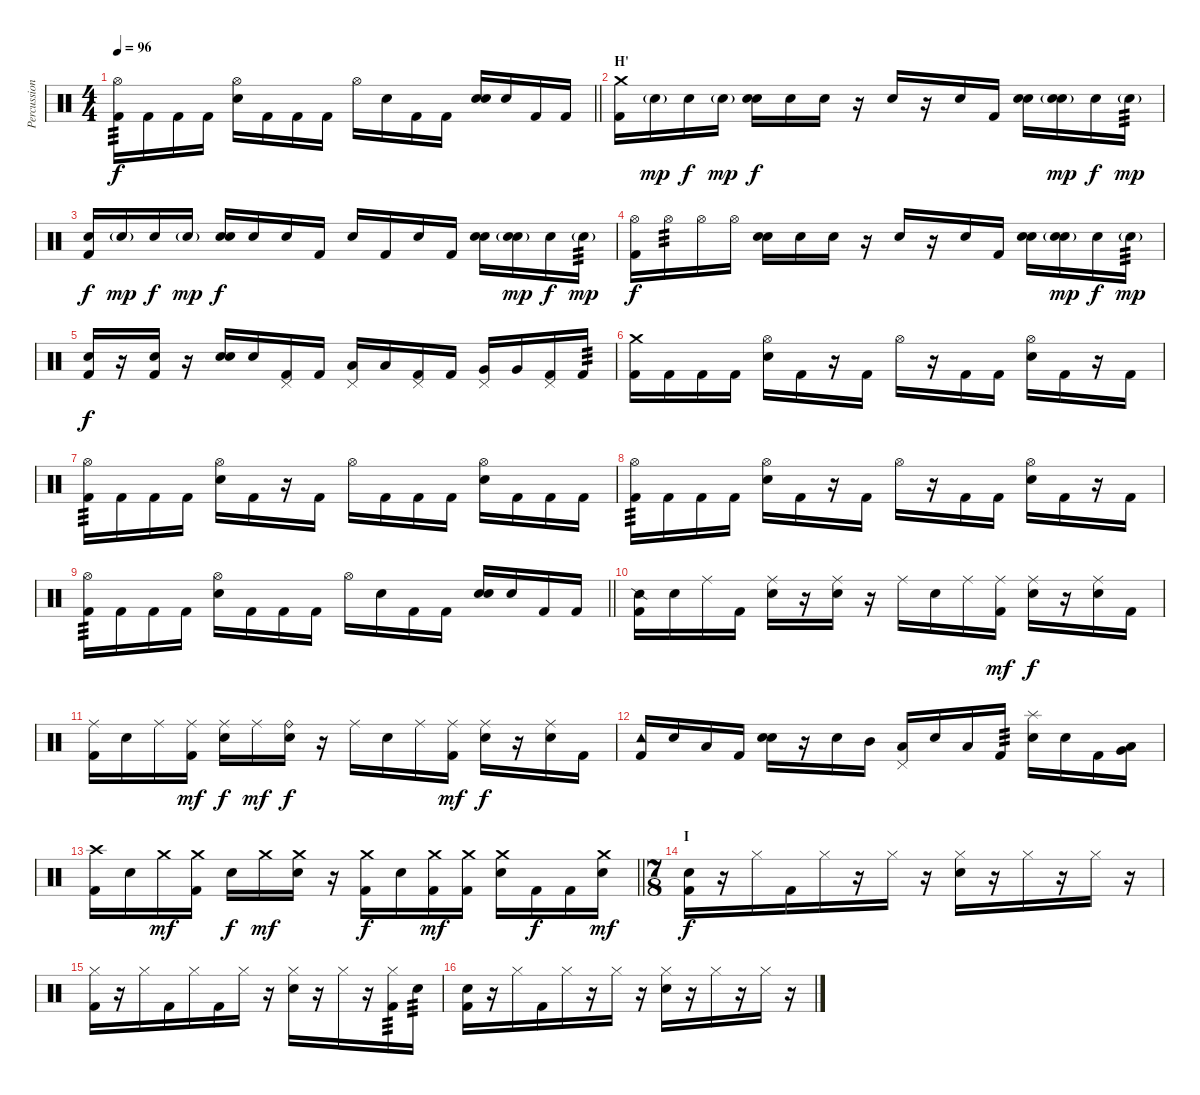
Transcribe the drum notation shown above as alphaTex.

\track ("Percussion" "Percussion") {instrument percussion}
\staff {score}
\articulation defaults
\ts (4 4)
\tempo 96
\clef neutral
\barLineRight lightlight
\ks c
("Hi-Hat (open)" "Kick (hit) 2").16{tp 3 dy f} "Kick (hit) 2".16 "Kick (hit) 2".16 "Kick (hit) 2".16 ("Hi-Hat (open)" "Snare (hit) 2").16 "Kick (hit) 2".16 "Kick (hit) 2".16 "Kick (hit) 2".16 "Hi-Hat (open)".16 "Snare (hit) 2".16 "Kick (hit) 2".16 "Kick (hit) 2".16 ("Snare (hit)" "Snare (hit) 2").16 "Snare (hit) 2".16 "Kick (hit) 2".16 "Kick (hit) 2".16 |
\section ("" "H'")
("Crash medium (hit)" "Kick (hit) 2").16 "Snare (hit)"{g}.16{dy mp} "Snare (hit)".16{dy f} "Snare (hit)"{g}.16{dy mp} ("Snare (hit)" "Snare (hit) 2").16{dy f} "Snare (hit) 2".16 "Snare (hit)".16 r.16 "Snare (hit)".16 r.16 "Snare (hit)".16 "Kick (hit) 2".16 ("Snare (hit)" "Snare (hit) 2").16 ("Snare (hit)"{g} "Snare (hit) 2").16{dy mp} "Snare (hit)".16{dy f} "Snare (hit)"{g}.16{tp 3 dy mp} |
("Snare (hit)" "Kick (hit) 2").16{dy f} "Snare (hit)"{g}.16{dy mp} "Snare (hit)".16{dy f} "Snare (hit)"{g}.16{dy mp} ("Snare (hit)" "Snare (hit) 2").16{dy f} "Snare (hit) 2".16 "Snare (hit)".16 "Kick (hit) 2".16 "Snare (hit)".16 "Kick (hit) 2".16 "Snare (hit)".16 "Kick (hit) 2".16 ("Snare (hit)" "Snare (hit) 2").16 ("Snare (hit)"{g} "Snare (hit) 2").16{dy mp} "Snare (hit)".16{dy f} "Snare (hit)"{g}.16{tp 3 dy mp} |
("Hi-Hat (open)" "Kick (hit) 2").16{dy f} "Hi-Hat (open)".16{tp 3} "Hi-Hat (open)".16 "Hi-Hat (open)".16 ("Snare (hit)" "Snare (hit) 2").16 "Snare (hit) 2".16 "Snare (hit)".16 r.16 "Snare (hit)".16 r.16 "Snare (hit)".16 "Kick (hit) 2".16 ("Snare (hit)" "Snare (hit) 2").16 ("Snare (hit)"{g} "Snare (hit) 2").16{dy mp} "Snare (hit)".16{dy f} "Snare (hit)"{g}.16{tp 3 dy mp} |
("Snare (hit)" "Kick (hit) 2").16{dy f} r.16 ("Snare (hit)" "Kick (hit) 2").16 r.16 ("Snare (hit)" "Snare (hit) 2").16 "Snare (hit) 2".16 ("Pedal Hi-Hat (hit)" "Kick (hit) 2").16 "Kick (hit) 2".16 ("Pedal Hi-Hat (hit)" "Low Tom (hit)").16 "Low Tom (hit)".16 ("Pedal Hi-Hat (hit)" "Kick (hit) 2").16 "Kick (hit) 2".16 ("Pedal Hi-Hat (hit)" "Very Low Tom (hit)").16 "Very Low Tom (hit)".16 ("Pedal Hi-Hat (hit)" "Kick (hit) 2").16 "Kick (hit) 2".16{tp 3} |
("Crash medium (hit)" "Kick (hit) 2").16 "Kick (hit) 2".16 "Kick (hit) 2".16 "Kick (hit) 2".16 ("Hi-Hat (open)" "Snare (hit) 2").16 "Kick (hit) 2".16 r.16 "Kick (hit) 2".16 "Hi-Hat (open)".16 r.16 "Kick (hit) 2".16 "Kick (hit) 2".16 ("Hi-Hat (open)" "Snare (hit) 2").16 "Kick (hit) 2".16 r.16 "Kick (hit) 2".16 |
("Hi-Hat (open)" "Kick (hit) 2").16{tp 3} "Kick (hit) 2".16 "Kick (hit) 2".16 "Kick (hit) 2".16 ("Hi-Hat (open)" "Snare (hit) 2").16 "Kick (hit) 2".16 r.16 "Kick (hit) 2".16 "Hi-Hat (open)".16 "Kick (hit) 2".16 "Kick (hit) 2".16 "Kick (hit) 2".16 ("Hi-Hat (open)" "Snare (hit) 2").16 "Kick (hit) 2".16 "Kick (hit) 2".16 "Kick (hit) 2".16 |
("Hi-Hat (open)" "Kick (hit) 2").16{tp 3} "Kick (hit) 2".16 "Kick (hit) 2".16 "Kick (hit) 2".16 ("Hi-Hat (open)" "Snare (hit) 2").16 "Kick (hit) 2".16 r.16 "Kick (hit) 2".16 "Hi-Hat (open)".16 r.16 "Kick (hit) 2".16 "Kick (hit) 2".16 ("Hi-Hat (open)" "Snare (hit) 2").16 "Kick (hit) 2".16 r.16 "Kick (hit) 2".16 |
\barLineRight lightlight
("Hi-Hat (open)" "Kick (hit) 2").16{tp 3} "Kick (hit) 2".16 "Kick (hit) 2".16 "Kick (hit) 2".16 ("Hi-Hat (open)" "Snare (hit) 2").16 "Kick (hit) 2".16 "Kick (hit) 2".16 "Kick (hit) 2".16 "Hi-Hat (open)".16 "Snare (hit) 2".16 "Kick (hit) 2".16 "Kick (hit) 2".16 ("Snare (hit)" "Snare (hit) 2").16 "Snare (hit) 2".16 "Kick (hit) 2".16 "Kick (hit) 2".16 |
("Snare (side stick) 2" "Kick (hit) 2").16 "Snare (hit) 2".16 "Ride (middle)".16 "Kick (hit) 2".16 ("Ride (middle)" "Snare (hit) 2").16 r.16 ("Ride (middle)" "Snare (hit) 2").16 r.16 "Ride (middle)".16 "Snare (hit) 2".16 "Ride (middle)".16 ("Ride (middle)" "Kick (hit) 2").16{dy mf} ("Ride (middle)" "Snare (hit) 2").16{dy f} r.16 ("Ride (middle)" "Snare (hit) 2").16 "Kick (hit) 2".16 |
("Ride (middle)" "Kick (hit) 2").16 "Snare (hit) 2".16 "Ride (middle)".16 ("Ride (middle)" "Kick (hit) 2").16{dy mf} ("Ride (middle)" "Snare (hit) 2").16{dy f} "Ride (middle)".16{dy mf} ("Ride (bell)" "Snare (hit) 2").16{dy f} r.16 "Ride (middle)".16 "Snare (hit) 2".16 "Ride (middle)".16 ("Ride (middle)" "Kick (hit) 2").16{dy mf} ("Ride (middle)" "Snare (hit) 2").16{dy f} r.16 ("Ride (middle)" "Snare (hit) 2").16 "Kick (hit) 2".16 |
("Tambourine (hit)" "Kick (hit) 2").16 "Snare (hit) 2".16 "Low Tom (hit)".16 "Kick (hit) 2".16 ("Snare (hit)" "Snare (hit) 2").16 r.16 "Snare (hit) 2".16 "Mid Tom (hit)".16 ("Pedal Hi-Hat (hit)" "Low Tom (hit)").16 "Snare (hit) 2".16 "Low Floor Tom (hit)".16 "Kick (hit) 2".16{tp 3} ("Splash (hit)" "Snare (hit) 2").16 "Snare (hit) 2".16 "Kick (hit) 2".16 ("Low Tom (hit)" "Very Low Tom (hit)").16{bu 60} |
\barLineRight lightlight
("Crash high (hit)" "Kick (hit) 2").16 "Snare (hit) 2".16 "Crash medium (hit)".16{dy mf} ("Crash medium (hit)" "Kick (hit) 2").16 "Snare (hit) 2".16{dy f} "Crash medium (hit)".16{dy mf} ("Crash medium (hit)" "Snare (hit) 2").16 r.16 ("Crash medium (hit)" "Kick (hit) 2").16{dy f} "Snare (hit) 2".16 ("Crash medium (hit)" "Kick (hit) 2").16{dy mf} ("Crash medium (hit)" "Kick (hit) 2").16 ("Crash medium (hit)" "Snare (hit) 2").16 "Kick (hit) 2".16{dy f} "Kick (hit) 2".16 ("Crash medium (hit)" "Snare (hit) 2").16{dy mf} |
\ts (7 8)
\section ("" "I")
("Snare (hit)" "Kick (hit) 2").16{dy f} r.16 "Hi-Hat (closed)".16 "Kick (hit) 2".16 "Hi-Hat (closed)".16 r.16 "Hi-Hat (closed)".16 r.16 ("Hi-Hat (closed)" "Snare (hit) 2").16 r.16 "Hi-Hat (closed)".16 r.16 "Hi-Hat (closed)".16 r.16 |
("Hi-Hat (closed)" "Kick (hit) 2").16 r.16 "Hi-Hat (closed)".16 "Kick (hit) 2".16 "Hi-Hat (closed)".16 "Kick (hit) 2".16 "Hi-Hat (closed)".16 r.16 ("Hi-Hat (closed)" "Snare (hit) 2").16 r.16 "Hi-Hat (closed)".16 r.16 ("Hi-Hat (closed)" "Kick (hit) 2").16{tp 3} "Snare (hit)".16{tp 3} |
("Snare (hit)" "Kick (hit) 2").16 r.16 "Hi-Hat (closed)".16 "Kick (hit) 2".16 "Hi-Hat (closed)".16 r.16 "Hi-Hat (closed)".16 r.16 ("Hi-Hat (closed)" "Snare (hit) 2").16 r.16 "Hi-Hat (closed)".16 r.16 "Hi-Hat (closed)".16 r.16
